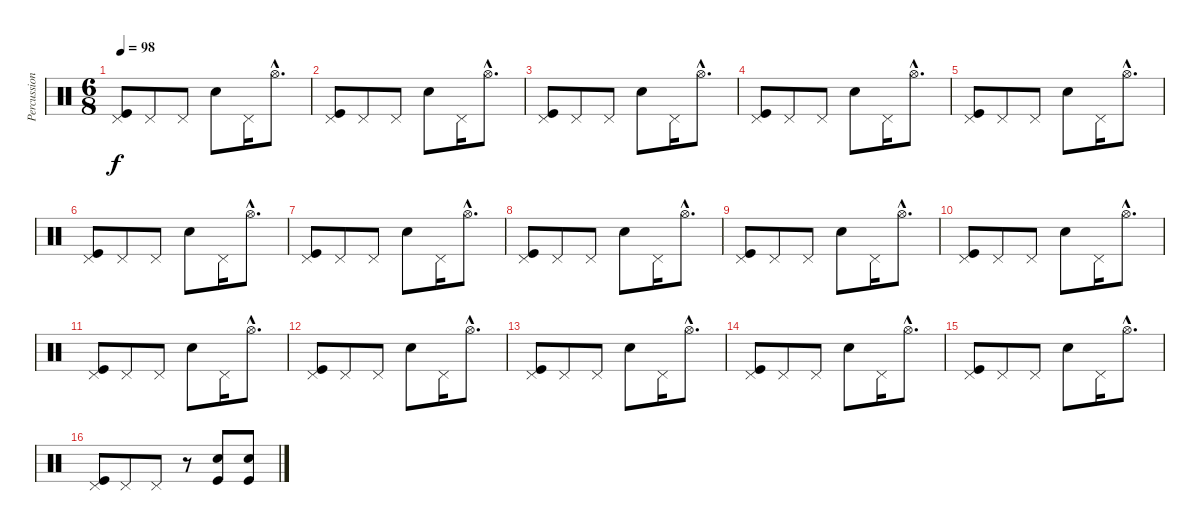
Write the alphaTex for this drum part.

\track ("Percussion" "Percussion") {instrument percussion}
\staff {score}
\articulation defaults
\ts (6 8)
\tempo 98
\clef neutral
\ks c
("Pedal Hi-Hat (hit)" "Kick (hit)").8{dy f} "Pedal Hi-Hat (hit)".8 "Pedal Hi-Hat (hit)".8 "Snare (hit) 2".8 "Pedal Hi-Hat (hit)".16 "Hi-Hat (open)"{hac}.8{d} |
("Pedal Hi-Hat (hit)" "Kick (hit)").8 "Pedal Hi-Hat (hit)".8 "Pedal Hi-Hat (hit)".8 "Snare (hit) 2".8 "Pedal Hi-Hat (hit)".16 "Hi-Hat (open)"{hac}.8{d} |
("Pedal Hi-Hat (hit)" "Kick (hit)").8 "Pedal Hi-Hat (hit)".8 "Pedal Hi-Hat (hit)".8 "Snare (hit) 2".8 "Pedal Hi-Hat (hit)".16 "Hi-Hat (open)"{hac}.8{d} |
("Pedal Hi-Hat (hit)" "Kick (hit)").8 "Pedal Hi-Hat (hit)".8 "Pedal Hi-Hat (hit)".8 "Snare (hit) 2".8 "Pedal Hi-Hat (hit)".16 "Hi-Hat (open)"{hac}.8{d} |
("Pedal Hi-Hat (hit)" "Kick (hit)").8 "Pedal Hi-Hat (hit)".8 "Pedal Hi-Hat (hit)".8 "Snare (hit) 2".8 "Pedal Hi-Hat (hit)".16 "Hi-Hat (open)"{hac}.8{d} |
("Pedal Hi-Hat (hit)" "Kick (hit)").8 "Pedal Hi-Hat (hit)".8 "Pedal Hi-Hat (hit)".8 "Snare (hit) 2".8 "Pedal Hi-Hat (hit)".16 "Hi-Hat (open)"{hac}.8{d} |
("Pedal Hi-Hat (hit)" "Kick (hit)").8 "Pedal Hi-Hat (hit)".8 "Pedal Hi-Hat (hit)".8 "Snare (hit) 2".8 "Pedal Hi-Hat (hit)".16 "Hi-Hat (open)"{hac}.8{d} |
("Pedal Hi-Hat (hit)" "Kick (hit)").8 "Pedal Hi-Hat (hit)".8 "Pedal Hi-Hat (hit)".8 "Snare (hit) 2".8 "Pedal Hi-Hat (hit)".16 "Hi-Hat (open)"{hac}.8{d} |
("Pedal Hi-Hat (hit)" "Kick (hit)").8 "Pedal Hi-Hat (hit)".8 "Pedal Hi-Hat (hit)".8 "Snare (hit) 2".8 "Pedal Hi-Hat (hit)".16 "Hi-Hat (open)"{hac}.8{d} |
("Pedal Hi-Hat (hit)" "Kick (hit)").8 "Pedal Hi-Hat (hit)".8 "Pedal Hi-Hat (hit)".8 "Snare (hit) 2".8 "Pedal Hi-Hat (hit)".16 "Hi-Hat (open)"{hac}.8{d} |
("Pedal Hi-Hat (hit)" "Kick (hit)").8 "Pedal Hi-Hat (hit)".8 "Pedal Hi-Hat (hit)".8 "Snare (hit) 2".8 "Pedal Hi-Hat (hit)".16 "Hi-Hat (open)"{hac}.8{d} |
("Pedal Hi-Hat (hit)" "Kick (hit)").8 "Pedal Hi-Hat (hit)".8 "Pedal Hi-Hat (hit)".8 "Snare (hit) 2".8{volume 5} "Pedal Hi-Hat (hit)".16 "Hi-Hat (open)"{hac}.8{d} |
("Pedal Hi-Hat (hit)" "Kick (hit)").8 "Pedal Hi-Hat (hit)".8 "Pedal Hi-Hat (hit)".8 "Snare (hit) 2".8 "Pedal Hi-Hat (hit)".16 "Hi-Hat (open)"{hac}.8{d} |
("Pedal Hi-Hat (hit)" "Kick (hit)").8 "Pedal Hi-Hat (hit)".8 "Pedal Hi-Hat (hit)".8 "Snare (hit) 2".8 "Pedal Hi-Hat (hit)".16 "Hi-Hat (open)"{hac}.8{d} |
("Pedal Hi-Hat (hit)" "Kick (hit)").8 "Pedal Hi-Hat (hit)".8 "Pedal Hi-Hat (hit)".8 "Snare (hit) 2".8 "Pedal Hi-Hat (hit)".16 "Hi-Hat (open)"{hac}.8{d} |
("Pedal Hi-Hat (hit)" "Kick (hit)").8 "Pedal Hi-Hat (hit)".8 "Pedal Hi-Hat (hit)".8 r.8 ("Kick (hit)" "Snare (hit) 2").8 ("Kick (hit)" "Snare (hit) 2").8
